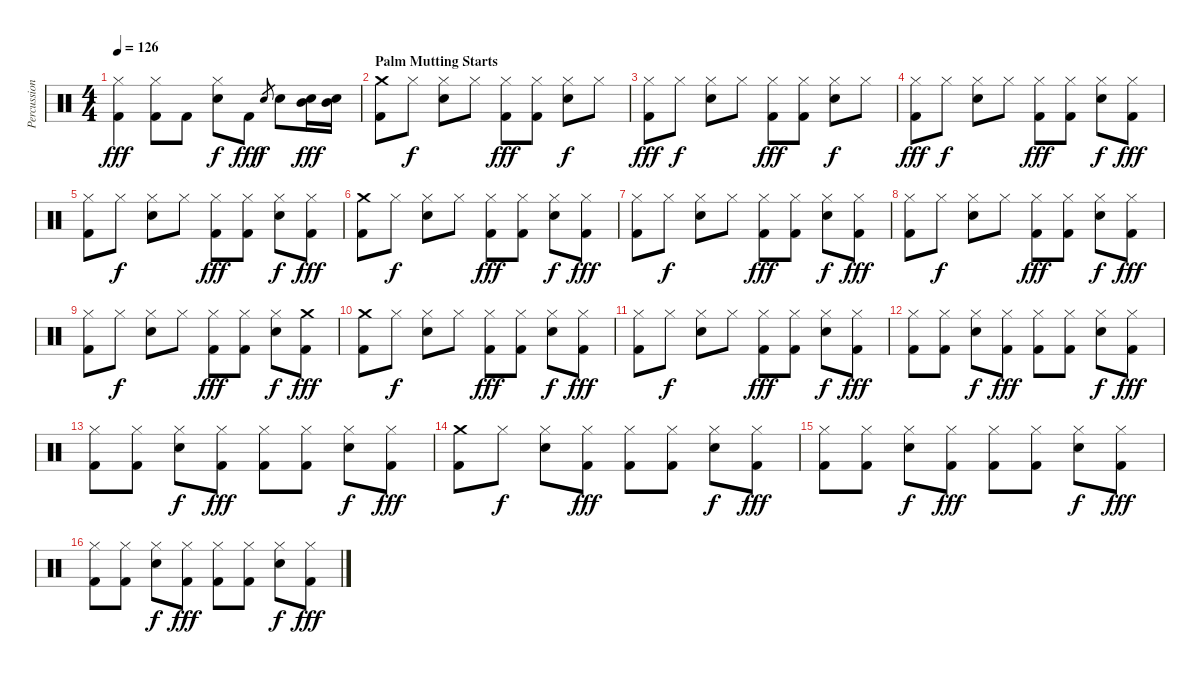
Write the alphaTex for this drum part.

\track ("Percussion" "Percussion") {instrument percussion}
\staff {score}
\articulation defaults
\ts (4 4)
\tempo 126
\clef neutral
\ks c
("Hi-Hat (closed)" "Kick (hit) 2").4{dy fff} ("Hi-Hat (closed)" "Kick (hit) 2").8 "Kick (hit) 2".8 ("Hi-Hat (closed)" "Electric Snare (hit)").8{dy f} "Kick (hit) 2".8{dy fff} "Electric Snare (hit)".8{gr dy f} "Electric Snare (hit)".8 ("Mid Tom (hit)" "Electric Snare (hit)").16{dy fff} ("Mid Tom (hit)" "Electric Snare (hit)").16 |
\section ("" "Palm Mutting Starts")
("Crash medium (hit)" "Kick (hit) 2").8 "Hi-Hat (closed)".8{dy f} ("Hi-Hat (closed)" "Electric Snare (hit)").8 "Hi-Hat (closed)".8 ("Hi-Hat (closed)" "Kick (hit) 2").8{dy fff} ("Hi-Hat (closed)" "Kick (hit) 2").8 ("Hi-Hat (closed)" "Electric Snare (hit)").8{dy f} "Hi-Hat (closed)".8 |
("Hi-Hat (closed)" "Kick (hit) 2").8{dy fff} "Hi-Hat (closed)".8{dy f} ("Hi-Hat (closed)" "Electric Snare (hit)").8 "Hi-Hat (closed)".8 ("Hi-Hat (closed)" "Kick (hit) 2").8{dy fff} ("Hi-Hat (closed)" "Kick (hit) 2").8 ("Hi-Hat (closed)" "Electric Snare (hit)").8{dy f} "Hi-Hat (closed)".8 |
("Hi-Hat (closed)" "Kick (hit) 2").8{dy fff} "Hi-Hat (closed)".8{dy f} ("Hi-Hat (closed)" "Electric Snare (hit)").8 "Hi-Hat (closed)".8 ("Hi-Hat (closed)" "Kick (hit) 2").8{dy fff} ("Hi-Hat (closed)" "Kick (hit) 2").8 ("Hi-Hat (closed)" "Electric Snare (hit)").8{dy f} ("Hi-Hat (closed)" "Kick (hit) 2").8{dy fff} |
("Hi-Hat (closed)" "Kick (hit) 2").8 "Hi-Hat (closed)".8{dy f} ("Hi-Hat (closed)" "Electric Snare (hit)").8 "Hi-Hat (closed)".8 ("Hi-Hat (closed)" "Kick (hit) 2").8{dy fff} ("Hi-Hat (closed)" "Kick (hit) 2").8 ("Hi-Hat (closed)" "Electric Snare (hit)").8{dy f} ("Hi-Hat (closed)" "Kick (hit) 2").8{dy fff} |
("Crash medium (hit)" "Kick (hit) 2").8 "Hi-Hat (closed)".8{dy f} ("Hi-Hat (closed)" "Electric Snare (hit)").8 "Hi-Hat (closed)".8 ("Hi-Hat (closed)" "Kick (hit) 2").8{dy fff} ("Hi-Hat (closed)" "Kick (hit) 2").8 ("Hi-Hat (closed)" "Electric Snare (hit)").8{dy f} ("Hi-Hat (closed)" "Kick (hit) 2").8{dy fff} |
("Hi-Hat (closed)" "Kick (hit) 2").8 "Hi-Hat (closed)".8{dy f} ("Hi-Hat (closed)" "Electric Snare (hit)").8 "Hi-Hat (closed)".8 ("Hi-Hat (closed)" "Kick (hit) 2").8{dy fff} ("Hi-Hat (closed)" "Kick (hit) 2").8 ("Hi-Hat (closed)" "Electric Snare (hit)").8{dy f} ("Hi-Hat (closed)" "Kick (hit) 2").8{dy fff} |
("Hi-Hat (closed)" "Kick (hit) 2").8 "Hi-Hat (closed)".8{dy f} ("Hi-Hat (closed)" "Electric Snare (hit)").8 "Hi-Hat (closed)".8 ("Hi-Hat (closed)" "Kick (hit) 2").8{dy fff} ("Hi-Hat (closed)" "Kick (hit) 2").8 ("Hi-Hat (closed)" "Electric Snare (hit)").8{dy f} ("Hi-Hat (closed)" "Kick (hit) 2").8{dy fff} |
("Hi-Hat (closed)" "Kick (hit) 2").8 "Hi-Hat (closed)".8{dy f} ("Hi-Hat (closed)" "Electric Snare (hit)").8 "Hi-Hat (closed)".8 ("Hi-Hat (closed)" "Kick (hit) 2").8{dy fff} ("Hi-Hat (closed)" "Kick (hit) 2").8 ("Hi-Hat (closed)" "Electric Snare (hit)").8{dy f} ("Crash medium (hit)" "Kick (hit) 2").8{dy fff} |
("Crash medium (hit)" "Kick (hit) 2").8 "Hi-Hat (closed)".8{dy f} ("Hi-Hat (closed)" "Electric Snare (hit)").8 "Hi-Hat (closed)".8 ("Hi-Hat (closed)" "Kick (hit) 2").8{dy fff} ("Hi-Hat (closed)" "Kick (hit) 2").8 ("Hi-Hat (closed)" "Electric Snare (hit)").8{dy f} ("Hi-Hat (closed)" "Kick (hit) 2").8{dy fff} |
("Hi-Hat (closed)" "Kick (hit) 2").8 "Hi-Hat (closed)".8{dy f} ("Hi-Hat (closed)" "Electric Snare (hit)").8 "Hi-Hat (closed)".8 ("Hi-Hat (closed)" "Kick (hit) 2").8{dy fff} ("Hi-Hat (closed)" "Kick (hit) 2").8 ("Hi-Hat (closed)" "Electric Snare (hit)").8{dy f} ("Hi-Hat (closed)" "Kick (hit) 2").8{dy fff} |
("Hi-Hat (closed)" "Kick (hit) 2").8 ("Hi-Hat (closed)" "Kick (hit) 2").8 ("Hi-Hat (closed)" "Electric Snare (hit)").8{dy f} ("Hi-Hat (closed)" "Kick (hit) 2").8{dy fff} ("Hi-Hat (closed)" "Kick (hit) 2").8 ("Hi-Hat (closed)" "Kick (hit) 2").8 ("Hi-Hat (closed)" "Electric Snare (hit)").8{dy f} ("Hi-Hat (closed)" "Kick (hit) 2").8{dy fff} |
("Hi-Hat (closed)" "Kick (hit) 2").8 ("Hi-Hat (closed)" "Kick (hit) 2").8 ("Hi-Hat (closed)" "Electric Snare (hit)").8{dy f} ("Hi-Hat (closed)" "Kick (hit) 2").8{dy fff} ("Hi-Hat (closed)" "Kick (hit) 2").8 ("Hi-Hat (closed)" "Kick (hit) 2").8 ("Hi-Hat (closed)" "Electric Snare (hit)").8{dy f} ("Hi-Hat (closed)" "Kick (hit) 2").8{dy fff} |
("Crash medium (hit)" "Kick (hit) 2").8 "Hi-Hat (closed)".8{dy f} ("Hi-Hat (closed)" "Electric Snare (hit)").8 ("Hi-Hat (closed)" "Kick (hit) 2").8{dy fff} ("Hi-Hat (closed)" "Kick (hit) 2").8 ("Hi-Hat (closed)" "Kick (hit) 2").8 ("Hi-Hat (closed)" "Electric Snare (hit)").8{dy f} ("Hi-Hat (closed)" "Kick (hit) 2").8{dy fff} |
("Hi-Hat (closed)" "Kick (hit) 2").8 ("Hi-Hat (closed)" "Kick (hit) 2").8 ("Hi-Hat (closed)" "Electric Snare (hit)").8{dy f} ("Hi-Hat (closed)" "Kick (hit) 2").8{dy fff} ("Hi-Hat (closed)" "Kick (hit) 2").8 ("Hi-Hat (closed)" "Kick (hit) 2").8 ("Hi-Hat (closed)" "Electric Snare (hit)").8{dy f} ("Hi-Hat (closed)" "Kick (hit) 2").8{dy fff} |
("Hi-Hat (closed)" "Kick (hit) 2").8 ("Hi-Hat (closed)" "Kick (hit) 2").8 ("Hi-Hat (closed)" "Electric Snare (hit)").8{dy f} ("Hi-Hat (closed)" "Kick (hit) 2").8{dy fff} ("Hi-Hat (closed)" "Kick (hit) 2").8 ("Hi-Hat (closed)" "Kick (hit) 2").8 ("Hi-Hat (closed)" "Electric Snare (hit)").8{dy f} ("Hi-Hat (closed)" "Kick (hit) 2").8{dy fff}
